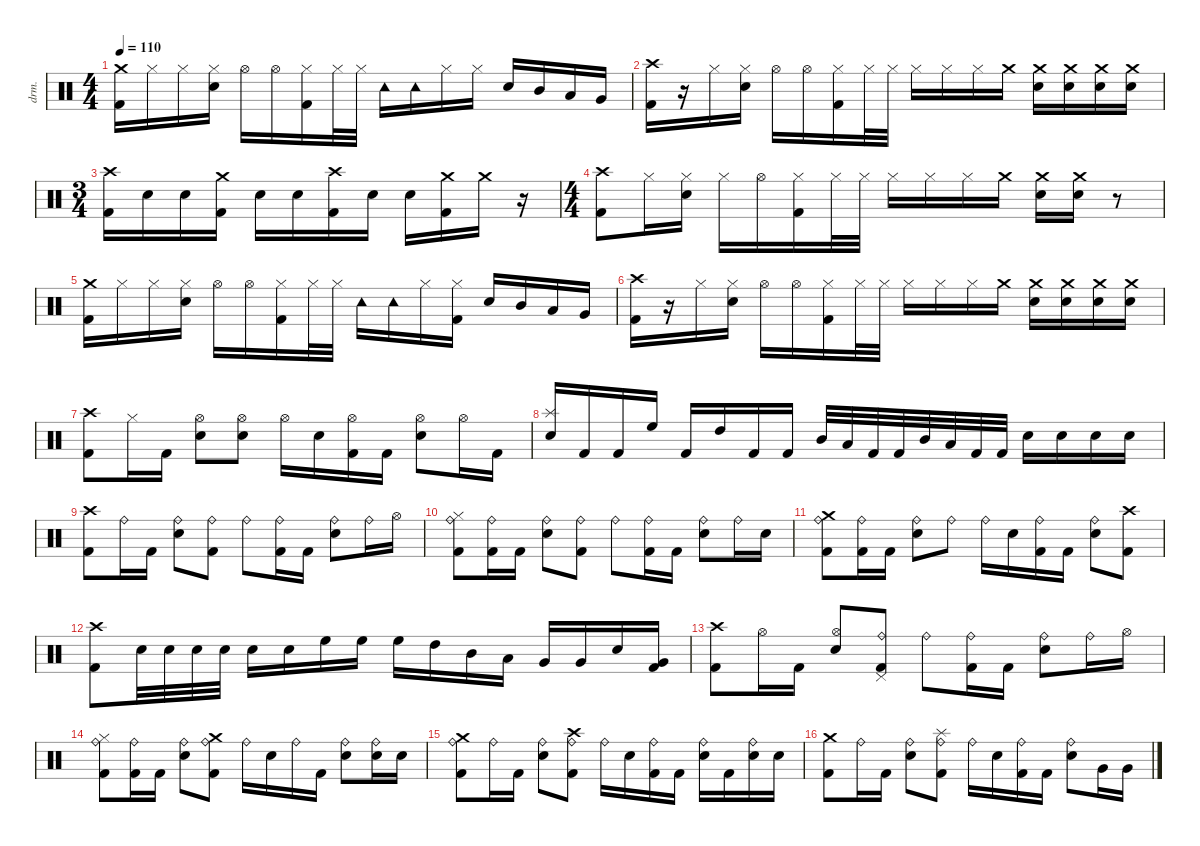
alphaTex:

\defaultSystemsLayout 4
\hideDynamics
\bracketExtendMode nobrackets
\otherSystemsTrackNameOrientation horizontal
\track ("Drums" "drm.") {instrument percussion}
\staff {score}
\articulation defaults
\ts (4 4)
\tempo 110
\clef neutral
\ks c
("Kick (hit) 2" "Crash medium (hit)").16{dy f beam Down} "Hi-Hat (closed)".16{dy mf beam Down} "Hi-Hat (closed)".16{beam Down} ("Snare (hit) 2" "Hi-Hat (closed)").16{dy f beam Down} "Hi-Hat (open)".16{beam Down} "Hi-Hat (open)".16{beam Down} ("Kick (hit) 2" "Hi-Hat (closed)").16{beam Down} "Hi-Hat (closed)".32{dy mf beam Down} "Hi-Hat (closed)".32{beam Down} "Tambourine (hit)".16{dy f beam Down} "Tambourine (hit)".16{beam Down} "Hi-Hat (closed)".16{dy mf beam Down} "Hi-Hat (closed)".16{beam Down} "Snare (hit) 2".16{dy f beam Up} "Mid Tom (hit)".16{beam Up} "Low Tom (hit)".16{beam Up} "Very Low Tom (hit)".16{beam Up} |
("Kick (hit) 2" "Crash high (hit)").16{beam Down} r.16{beam Down} "Hi-Hat (closed)".16{dy mf beam Down} ("Snare (hit) 2" "Hi-Hat (closed)").16{dy f beam Down} "Hi-Hat (open)".16{beam Down} "Hi-Hat (open)".16{beam Down} ("Kick (hit) 2" "Hi-Hat (closed)").16{beam Down} "Hi-Hat (closed)".32{dy mf beam Down} "Hi-Hat (closed)".32{beam Down} "Hi-Hat (closed)".16{beam Down} "Hi-Hat (closed)".16{beam Down} "Hi-Hat (closed)".16{beam Down} "Crash medium (hit)".16{dy mp beam Down} ("Snare (hit) 2" "Crash medium (hit)").16{dy mf beam Down} ("Snare (hit) 2" "Crash medium (hit)").16{dy f beam Down} ("Crash medium (hit)" "Snare (hit) 2").16{dy mf beam Down} ("Snare (hit) 2" "Crash medium (hit)").16{dy f beam Down} |
\ts (3 4)
\beaming (8 2 2 2)
("Kick (hit) 2" "Crash high (hit)").16{beam Down} "Snare (hit) 2".16{dy mp beam Down} "Snare (hit) 2".16{dy mf beam Down} ("Kick (hit) 2" "Crash medium (hit)").16{dy f beam Down} "Snare (hit) 2".16{dy mp beam Down} "Snare (hit) 2".16{dy mf beam Down} ("Kick (hit) 2" "Crash high (hit)").16{dy f beam Down} "Snare (hit) 2".16{dy mf beam Down} "Snare (hit) 2".16{beam Down} ("Kick (hit) 2" "Crash medium (hit)").16{dy f beam Down} "Crash medium (hit)".16{beam Down} r.16{beam Down} |
\ts (4 4)
\beaming (8 2 2 2 2)
("Kick (hit) 2" "Crash high (hit)").8{beam Down} "Hi-Hat (closed)".16{dy mf beam Down} ("Snare (hit) 2" "Hi-Hat (closed)").16{dy f beam Down} "Hi-Hat (closed)".16{dy mf beam Down} "Hi-Hat (open)".16{dy f beam Down} ("Kick (hit) 2" "Hi-Hat (closed)").16{beam Down} "Hi-Hat (closed)".32{dy mf beam Down} "Hi-Hat (closed)".32{beam Down} "Hi-Hat (closed)".16{beam Down} "Hi-Hat (closed)".16{beam Down} "Hi-Hat (closed)".16{beam Down} "Crash medium (hit)".16{dy mp beam Down} ("Snare (hit) 2" "Crash medium (hit)").16{dy mf beam Down} ("Snare (hit) 2" "Crash medium (hit)").16{dy f beam Down} r.8{beam Down} |
("Crash medium (hit)" "Kick (hit) 2").16{beam Down} "Hi-Hat (closed)".16{dy mf beam Down} "Hi-Hat (closed)".16{beam Down} ("Snare (hit) 2" "Hi-Hat (closed)").16{dy f beam Down} "Hi-Hat (open)".16{beam Down} "Hi-Hat (open)".16{beam Down} ("Kick (hit) 2" "Hi-Hat (closed)").16{beam Down} "Hi-Hat (closed)".32{dy mf beam Down} "Hi-Hat (closed)".32{beam Down} "Tambourine (hit)".16{dy f beam Down} "Tambourine (hit)".16{beam Down} "Hi-Hat (closed)".16{dy mf beam Down} ("Kick (hit) 2" "Hi-Hat (closed)").16{beam Down} "Snare (hit) 2".16{dy f beam Up} "Mid Tom (hit)".16{beam Up} "Low Tom (hit)".16{beam Up} "Very Low Tom (hit)".16{beam Up} |
("Crash high (hit)" "Kick (hit) 2").16{beam Down} r.16{beam Down} "Hi-Hat (closed)".16{dy mf beam Down} ("Snare (hit) 2" "Hi-Hat (closed)").16{dy f beam Down} "Hi-Hat (open)".16{beam Down} "Hi-Hat (open)".16{beam Down} ("Kick (hit) 2" "Hi-Hat (closed)").16{beam Down} "Hi-Hat (closed)".32{dy mf beam Down} "Hi-Hat (closed)".32{beam Down} "Hi-Hat (closed)".16{beam Down} "Hi-Hat (closed)".16{beam Down} "Hi-Hat (closed)".16{beam Down} "Crash medium (hit)".16{dy mp beam Down} ("Snare (hit) 2" "Crash medium (hit)").16{dy mf beam Down} ("Snare (hit) 2" "Crash medium (hit)").16{dy f beam Down} ("Crash medium (hit)" "Snare (hit) 2").16{dy mf beam Down} ("Snare (hit) 2" "Crash medium (hit)").16{dy f beam Down} |
("Crash high (hit)" "Kick (hit) 2").8{beam Down} "Hi-Hat (closed)".16{dy mf beam Down} "Kick (hit) 2".16{dy f beam Down} ("Snare (hit) 2" "Hi-Hat (open)").8{beam Down} ("Hi-Hat (open)" "Snare (hit) 2").8{beam Down} "Hi-Hat (open)".16{beam Down} "Snare (hit) 2".16{beam Down} ("Hi-Hat (open)" "Kick (hit) 2").16{beam Down} "Kick (hit) 2".16{beam Down} ("Snare (hit) 2" "Hi-Hat (open)").8{beam Down} "Hi-Hat (open)".16{beam Down} "Kick (hit) 2".16{beam Down} |
("Snare (hit) 2" "Splash (hit)").16{beam Up} "Kick (hit) 2".16{beam Up} "Kick (hit) 2".16{beam Up} "High Floor Tom (hit)".16{beam Up} "Kick (hit) 2".16{beam Up} "High Tom (hit)".16{beam Up} "Kick (hit) 2".16{beam Up} "Kick (hit) 2".16{beam Up} "Mid Tom (hit)".32{beam Up} "Low Tom (hit)".32{beam Up} "Kick (hit) 2".32{beam Up} "Kick (hit) 2".32{beam Up} "Mid Tom (hit)".32{beam Up} "Low Tom (hit)".32{beam Up} "Kick (hit) 2".32{beam Up} "Kick (hit) 2".32{beam Up} "Snare (hit) 2".16{beam Down} "Snare (hit) 2".16{beam Down} "Snare (hit) 2".16{beam Down} "Snare (hit) 2".16{beam Down} |
("Crash high (hit)" "Kick (hit) 2").8{beam Down} "Ride (bell)".16{beam Down} "Kick (hit) 2".16{beam Down} ("Snare (hit) 2" "Ride (bell)").8{beam Down} ("Kick (hit) 2" "Ride (bell)").8{beam Down} "Ride (bell)".8{beam Down} ("Kick (hit) 2" "Ride (bell)").16{beam Down} "Kick (hit) 2".16{beam Down} ("Snare (hit) 2" "Ride (bell)").8{beam Down} "Ride (bell)".16{beam Down} "Hi-Hat (open)".16{beam Down} |
("Ride (bell)" "Hi-Hat (closed)" "Kick (hit) 2").8{beam Down} ("Ride (bell)" "Kick (hit) 2").16{beam Down} "Kick (hit) 2".16{beam Down} ("Snare (hit) 2" "Ride (bell)").8{beam Down} ("Kick (hit) 2" "Ride (bell)").8{beam Down} "Ride (bell)".8{beam Down} ("Kick (hit) 2" "Ride (bell)").16{beam Down} "Kick (hit) 2".16{beam Down} ("Ride (bell)" "Snare (hit) 2").8{beam Down} "Ride (bell)".16{beam Down} "Snare (hit) 2".16{beam Down} |
("Kick (hit) 2" "Ride (bell)" "Crash medium (hit)").8{beam Down} ("Ride (bell)" "Kick (hit) 2").16{beam Down} "Kick (hit) 2".16{beam Down} ("Snare (hit) 2" "Ride (bell)").8{beam Down} "Ride (bell)".8{beam Down} "Ride (bell)".16{beam Down} "Snare (hit) 2".16{beam Down} ("Kick (hit) 2" "Ride (bell)").16{beam Down} "Kick (hit) 2".16{beam Down} ("Ride (bell)" "Snare (hit) 2").8{beam Down} ("Crash high (hit)" "Kick (hit) 2").8{beam Down} |
("Kick (hit) 2" "Crash high (hit)").8{beam Down} "Snare (hit) 2".32{beam Down} "Snare (hit) 2".32{beam Down} "Snare (hit) 2".32{beam Down} "Snare (hit) 2".32{beam Down} "Snare (hit) 2".16{beam Down} "Snare (hit) 2".16{beam Down} "High Floor Tom (hit)".16{beam Down} "High Floor Tom (hit)".16{beam Down} "High Floor Tom (hit)".16{beam Down} "High Tom (hit)".16{beam Down} "Mid Tom (hit)".16{beam Down} "Low Tom (hit)".16{beam Down} "Very Low Tom (hit)".16{beam Up} "Very Low Tom (hit)".16{beam Up} "Snare (hit) 2".16{beam Up} ("Very Low Tom (hit)" "Kick (hit) 2").16{beam Up} |
("Kick (hit) 2" "Crash high (hit)").8{beam Down} "Hi-Hat (open)".16{beam Down} "Kick (hit) 2".16{beam Down} ("Snare (hit) 2" "Hi-Hat (open)").8{beam Up} ("Kick (hit) 2" "Pedal Hi-Hat (hit)" "Ride (bell)").8{beam Up} "Ride (bell)".8{beam Down} ("Kick (hit) 2" "Ride (bell)").16{beam Down} "Kick (hit) 2".16{beam Down} ("Snare (hit) 2" "Ride (bell)").8{beam Down} "Ride (bell)".16{beam Down} "Hi-Hat (open)".16{beam Down} |
("Ride (bell)" "Hi-Hat (closed)" "Kick (hit) 2").8{beam Down} ("Ride (bell)" "Kick (hit) 2").16{beam Down} "Kick (hit) 2".16{beam Down} ("Snare (hit) 2" "Ride (bell)").8{beam Down} ("Kick (hit) 2" "Ride (bell)" "Crash medium (hit)").8{beam Down} "Ride (bell)".16{beam Down} "Snare (hit) 2".16{beam Down} "Ride (bell)".16{beam Down} "Kick (hit) 2".16{beam Down} ("Ride (bell)" "Snare (hit) 2").8{beam Down} ("Ride (bell)" "Snare (hit) 2").16{beam Down} "Snare (hit) 2".16{dy mp beam Down} |
("Kick (hit) 2" "Ride (bell)" "Crash medium (hit)").8{dy f beam Down} "Ride (bell)".16{beam Down} "Kick (hit) 2".16{beam Down} ("Snare (hit) 2" "Ride (bell)").8{beam Down} ("Ride (bell)" "Kick (hit) 2" "Crash high (hit)").8{beam Down} "Ride (bell)".16{beam Down} "Snare (hit) 2".16{beam Down} ("Kick (hit) 2" "Ride (bell)").16{beam Down} "Kick (hit) 2".16{beam Down} ("Ride (bell)" "Snare (hit) 2").16{beam Down} "Kick (hit) 2".16{beam Down} ("Snare (hit) 2" "Ride (bell)").16{beam Down} "Snare (hit) 2".16{beam Down} |
("Crash medium (hit)" "Kick (hit) 2").8{dy mp beam Down} "Ride (bell)".16{dy mf beam Down} "Kick (hit) 2".16{dy f beam Down} ("Snare (hit) 2" "Ride (bell)").8{beam Down} ("Ride (bell)" "Kick (hit) 2" "Splash (hit)").8{beam Down} "Ride (bell)".16{beam Down} "Snare (hit) 2".16{beam Down} ("Kick (hit) 2" "Ride (bell)").16{beam Down} "Kick (hit) 2".16{beam Down} ("Ride (bell)" "Snare (hit) 2").8{beam Down} "Very Low Tom (hit)".16{beam Down} "Very Low Tom (hit)".16{beam Down}
